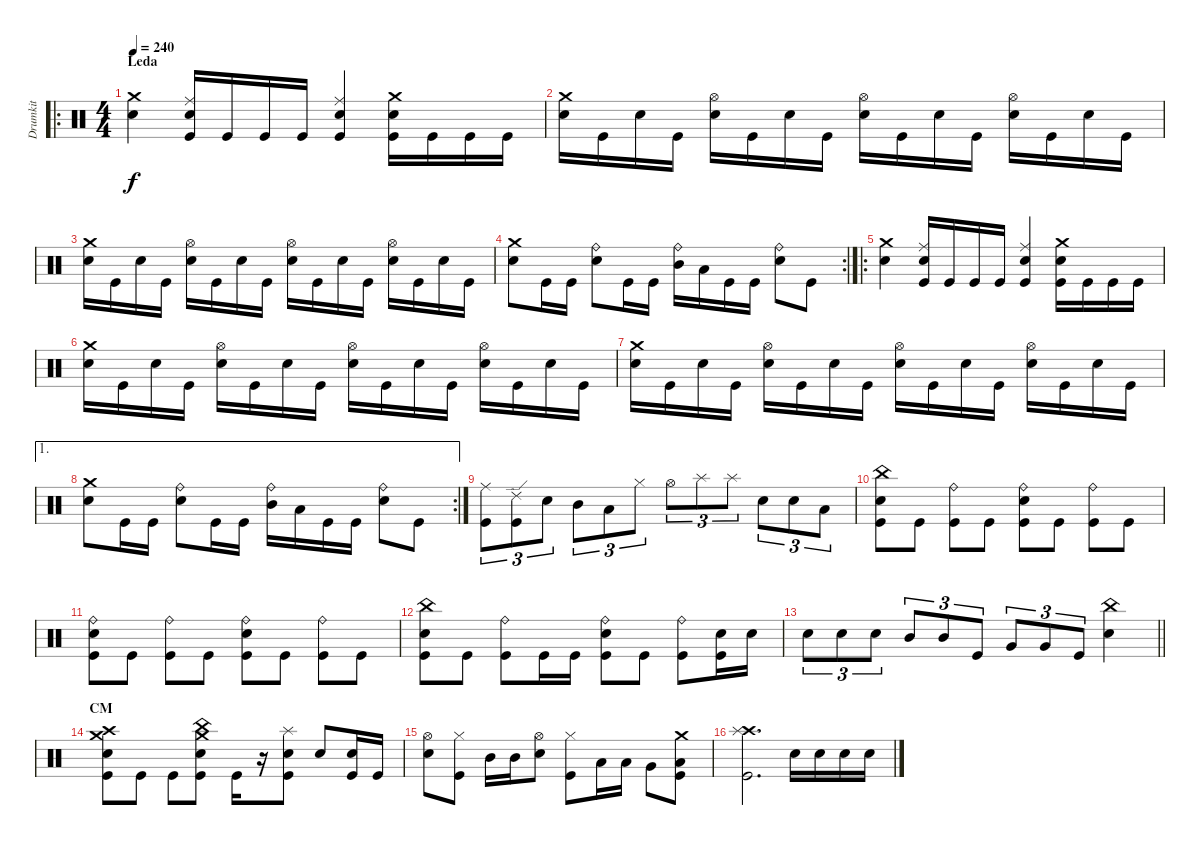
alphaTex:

\track ("Drumkit" "Drumkit") {instrument percussion}
\staff {score}
\articulation defaults
\ro
\ts (4 4)
\section ("" "Leda")
\tempo 240
\clef neutral
\ks c
("Crash medium (hit)" "Snare (hit) 2").4{dy f} ("Ride (middle)" "Snare (hit) 2" "Kick (hit)").16 "Kick (hit)".16 "Kick (hit)".16 "Kick (hit)".16 ("Ride (middle)" "Snare (hit) 2" "Kick (hit)").4 ("Crash medium (hit)" "Snare (hit) 2" "Kick (hit)").16 "Kick (hit)".16 "Kick (hit)".16 "Kick (hit)".16 |
("Crash medium (hit)" "Snare (hit) 2").16 "Kick (hit)".16 "Snare (hit) 2".16 "Kick (hit)".16 ("Hi-Hat (open)" "Snare (hit) 2").16 "Kick (hit)".16 "Snare (hit) 2".16 "Kick (hit)".16 ("Hi-Hat (open)" "Snare (hit) 2").16 "Kick (hit)".16 "Snare (hit) 2".16 "Kick (hit)".16 ("Hi-Hat (open)" "Snare (hit) 2").16 "Kick (hit)".16 "Snare (hit) 2".16 "Kick (hit)".16 |
("Crash medium (hit)" "Snare (hit) 2").16 "Kick (hit)".16 "Snare (hit) 2".16 "Kick (hit)".16 ("Hi-Hat (open)" "Snare (hit) 2").16 "Kick (hit)".16 "Snare (hit) 2".16 "Kick (hit)".16 ("Hi-Hat (open)" "Snare (hit) 2").16 "Kick (hit)".16 "Snare (hit) 2".16 "Kick (hit)".16 ("Hi-Hat (open)" "Snare (hit) 2").16 "Kick (hit)".16 "Snare (hit) 2".16 "Kick (hit)".16 |
\rc 2
("Crash medium (hit)" "Snare (hit) 2").8 "Kick (hit)".16 "Kick (hit)".16 ("Ride (bell)" "Snare (hit) 2").8 "Kick (hit)".16 "Kick (hit)".16 ("Ride (bell)" "Mid Tom (hit)").16 "Low Tom (hit)".16 "Kick (hit)".16 "Kick (hit)".16 ("Ride (bell)" "Snare (hit) 2").8 "Kick (hit)".8 |
\ro
("Crash medium (hit)" "Snare (hit) 2").4 ("Ride (middle)" "Snare (hit) 2" "Kick (hit)").16 "Kick (hit)".16 "Kick (hit)".16 "Kick (hit)".16 ("Ride (middle)" "Snare (hit) 2" "Kick (hit)").4 ("Crash medium (hit)" "Snare (hit) 2" "Kick (hit)").16 "Kick (hit)".16 "Kick (hit)".16 "Kick (hit)".16 |
("Crash medium (hit)" "Snare (hit) 2").16 "Kick (hit)".16 "Snare (hit) 2".16 "Kick (hit)".16 ("Hi-Hat (open)" "Snare (hit) 2").16 "Kick (hit)".16 "Snare (hit) 2".16 "Kick (hit)".16 ("Hi-Hat (open)" "Snare (hit) 2").16 "Kick (hit)".16 "Snare (hit) 2".16 "Kick (hit)".16 ("Hi-Hat (open)" "Snare (hit) 2").16 "Kick (hit)".16 "Snare (hit) 2".16 "Kick (hit)".16 |
("Crash medium (hit)" "Snare (hit) 2").16 "Kick (hit)".16 "Snare (hit) 2".16 "Kick (hit)".16 ("Hi-Hat (open)" "Snare (hit) 2").16 "Kick (hit)".16 "Snare (hit) 2".16 "Kick (hit)".16 ("Hi-Hat (open)" "Snare (hit) 2").16 "Kick (hit)".16 "Snare (hit) 2".16 "Kick (hit)".16 ("Hi-Hat (open)" "Snare (hit) 2").16 "Kick (hit)".16 "Snare (hit) 2".16 "Kick (hit)".16 |
\ae 1
\rc 2
("Crash medium (hit)" "Snare (hit) 2").8 "Kick (hit)".16 "Kick (hit)".16 ("Ride (bell)" "Snare (hit) 2").8 "Kick (hit)".16 "Kick (hit)".16 ("Ride (bell)" "Mid Tom (hit)").16 "Low Tom (hit)".16 "Kick (hit)".16 "Kick (hit)".16 ("Ride (bell)" "Snare (hit) 2").8 "Kick (hit)".8 |
("Ride (middle)" "Kick (hit)").8{tu (3 2)} ("Ride (edge) 2" "Kick (hit)").8{tu (3 2)} "Snare (hit) 2".8{tu (3 2)} "Mid Tom (hit)".8{tu (3 2)} "Low Tom (hit)".8{tu (3 2)} "Hi-Hat (closed)".8{tu (3 2)} "Hi-Hat (open)".8{tu (3 2)} "Splash (hit)".8{tu (3 2)} "Splash (hit)".8{tu (3 2)} "Snare (hit) 2".8{tu (3 2)} "Snare (hit) 2".8{tu (3 2)} "Low Tom (hit)".8{tu (3 2)} |
("China (hit)" "Snare (hit) 2" "Kick (hit)").8 "Kick (hit)".8 ("Ride (bell)" "Kick (hit)").8 "Kick (hit)".8 ("Ride (bell)" "Snare (hit) 2" "Kick (hit)").8 "Kick (hit)".8 ("Ride (bell)" "Kick (hit)").8 "Kick (hit)".8 |
("Ride (bell)" "Snare (hit) 2" "Kick (hit)").8 "Kick (hit)".8 ("Ride (bell)" "Kick (hit)").8 "Kick (hit)".8 ("Ride (bell)" "Snare (hit) 2" "Kick (hit)").8 "Kick (hit)".8 ("Ride (bell)" "Kick (hit)").8 "Kick (hit)".8 |
("China (hit)" "Snare (hit) 2" "Kick (hit)").8 "Kick (hit)".8 ("Ride (bell)" "Kick (hit)").8 "Kick (hit)".16 "Kick (hit)".16 ("Ride (bell)" "Snare (hit) 2" "Kick (hit)").8 "Kick (hit)".8 ("Ride (bell)" "Kick (hit)").8 ("Snare (hit) 2" "Kick (hit)").16 "Snare (hit) 2".16 |
\barLineRight lightlight "Snare (hit) 2".8{tu (3 2)} "Snare (hit) 2".8{tu (3 2)} "Snare (hit) 2".8{tu (3 2)} "Mid Tom (hit)".8{tu (3 2)} "Mid Tom (hit)".8{tu (3 2)} "Kick (hit)".8{tu (3 2)} "Very Low Tom (hit)".8{tu (3 2)} "Very Low Tom (hit)".8{tu (3 2)} "Kick (hit)".8{tu (3 2)}
("China (hit)" "Snare (hit) 2").4 |
\section ("" "CM")
("Crash medium (hit)" "Crash high (hit)" "Snare (hit) 2" "Kick (hit)").8 "Kick (hit)".8 "Kick (hit)".8 ("Crash medium (hit)" "China (hit)" "Snare (hit) 2" "Kick (hit)").8 "Kick (hit)".16 r.16 ("Splash (hit)" "Snare (hit) 2" "Kick (hit)").8 "Snare (hit) 2".8 ("Snare (hit) 2" "Kick (hit)").16 "Kick (hit)".16 |
("Hi-Hat (open)" "Snare (hit) 2").8 ("Hi-Hat (closed)" "Kick (hit)").8 "Mid Tom (hit)".16 "Mid Tom (hit)".16 ("Hi-Hat (open)" "Snare (hit) 2").8 ("Hi-Hat (closed)" "Kick (hit)").8 "Low Tom (hit)".16 "Low Tom (hit)".16 "Very Low Tom (hit)".8 ("Crash medium (hit)" "Low Floor Tom (hit)" "Kick (hit)").8 |
("Crash high (hit)" "Splash (hit)" "Kick (hit)").2{d} "Snare (hit) 2".16 "Snare (hit) 2".16 "Snare (hit) 2".16 "Snare (hit) 2".16
